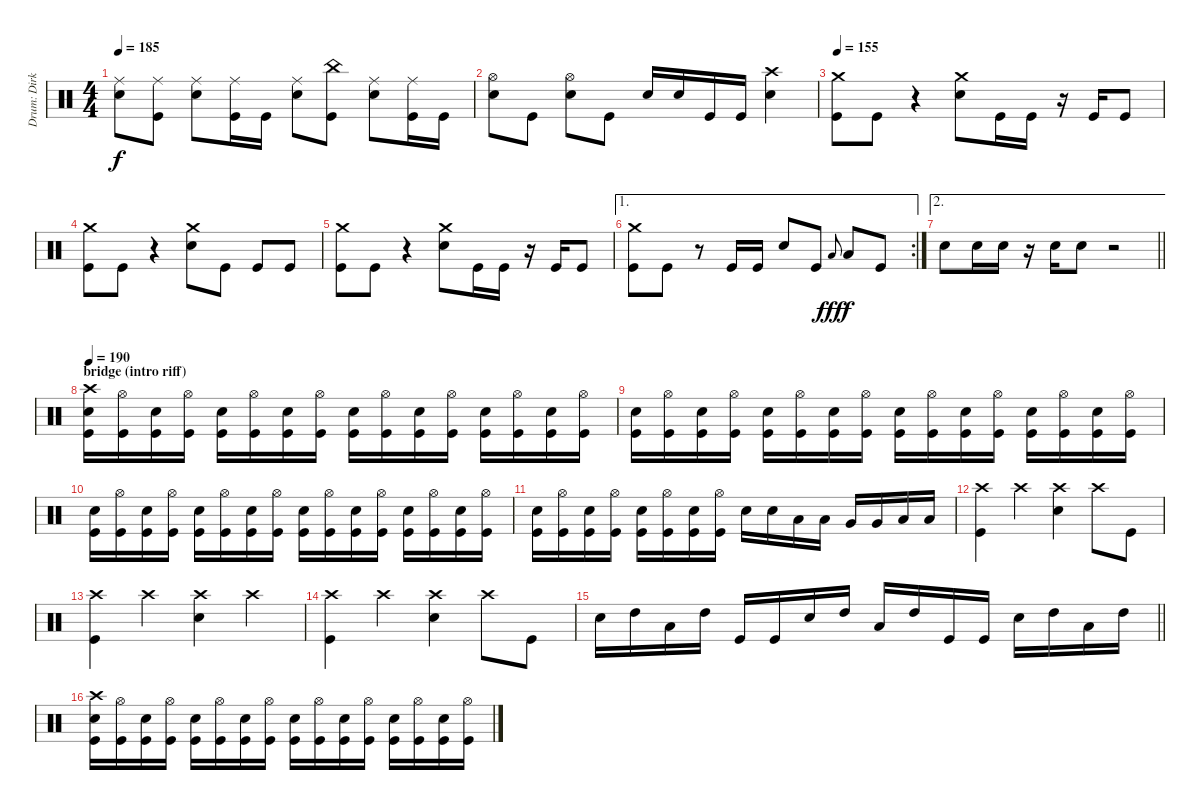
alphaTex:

\track ("Drum: Dirk" "Drum: Dirk") {instrument percussion}
\staff {score}
\articulation defaults
\ts (4 4)
\tempo 185
\clef neutral
\ks c
("Ride (middle)" "Electric Snare (hit)").8{dy f} ("Ride (middle)" "Kick (hit)").8 ("Ride (middle)" "Electric Snare (hit)").8 ("Ride (middle)" "Kick (hit)").16 "Kick (hit)".16 ("Ride (middle)" "Electric Snare (hit)").8 ("China (hit)" "Kick (hit)").8 ("Ride (middle)" "Electric Snare (hit)").8 ("Ride (middle)" "Kick (hit)").16 "Kick (hit)".16 |
("Hi-Hat (open)" "Electric Snare (hit)").8 "Kick (hit)".8 ("Hi-Hat (open)" "Electric Snare (hit)").8 "Kick (hit)".8 "Electric Snare (hit)".16 "Electric Snare (hit)".16 "Kick (hit)".16 "Kick (hit)".16 ("Crash high (hit)" "Electric Snare (hit)").4 |
\tempo 155
("Crash medium (hit)" "Kick (hit)").8 "Kick (hit)".8 r.4 ("Crash medium (hit)" "Electric Snare (hit)").8 "Kick (hit)".16 "Kick (hit)".16 r.16 "Kick (hit)".16 "Kick (hit)".8 |
("Crash medium (hit)" "Kick (hit)").8 "Kick (hit)".8 r.4 ("Crash medium (hit)" "Electric Snare (hit)").8 "Kick (hit)".8 "Kick (hit)".8 "Kick (hit)".8 |
("Crash medium (hit)" "Kick (hit)").8 "Kick (hit)".8 r.4 ("Crash medium (hit)" "Electric Snare (hit)").8 "Kick (hit)".16 "Kick (hit)".16 r.16 "Kick (hit)".16 "Kick (hit)".8 |
\ae 1
\rc 2
("Crash medium (hit)" "Kick (hit)").8 "Kick (hit)".8 r.8 "Kick (hit)".16 "Kick (hit)".16 "Electric Snare (hit)".8 "Kick (hit)".8 "Low Tom (hit)".8{gr onbeat dy fff} "Low Tom (hit)".8{dy f} "Kick (hit)".8 |
\ae 2
\barLineRight lightlight "Electric Snare (hit)".8 "Electric Snare (hit)".16 "Electric Snare (hit)".16
r.16 "Electric Snare (hit)".16 "Electric Snare (hit)".8 r.2 |
\section ("" "bridge (intro riff)")
\tempo 190
("Crash high (hit)" "Electric Snare (hit)" "Kick (hit)").16 ("Hi-Hat (open)" "Kick (hit)").16 ("Electric Snare (hit)" "Kick (hit)").16 ("Hi-Hat (open)" "Kick (hit)").16 ("Electric Snare (hit)" "Kick (hit)").16 ("Hi-Hat (open)" "Kick (hit)").16 ("Electric Snare (hit)" "Kick (hit)").16 ("Hi-Hat (open)" "Kick (hit)").16 ("Electric Snare (hit)" "Kick (hit)").16 ("Hi-Hat (open)" "Kick (hit)").16 ("Electric Snare (hit)" "Kick (hit)").16 ("Hi-Hat (open)" "Kick (hit)").16 ("Electric Snare (hit)" "Kick (hit)").16 ("Hi-Hat (open)" "Kick (hit)").16 ("Electric Snare (hit)" "Kick (hit)").16 ("Hi-Hat (open)" "Kick (hit)").16 |
("Electric Snare (hit)" "Kick (hit)").16 ("Hi-Hat (open)" "Kick (hit)").16 ("Electric Snare (hit)" "Kick (hit)").16 ("Hi-Hat (open)" "Kick (hit)").16 ("Electric Snare (hit)" "Kick (hit)").16 ("Hi-Hat (open)" "Kick (hit)").16 ("Electric Snare (hit)" "Kick (hit)").16 ("Hi-Hat (open)" "Kick (hit)").16 ("Electric Snare (hit)" "Kick (hit)").16 ("Hi-Hat (open)" "Kick (hit)").16 ("Electric Snare (hit)" "Kick (hit)").16 ("Hi-Hat (open)" "Kick (hit)").16 ("Electric Snare (hit)" "Kick (hit)").16 ("Hi-Hat (open)" "Kick (hit)").16 ("Electric Snare (hit)" "Kick (hit)").16 ("Hi-Hat (open)" "Kick (hit)").16 |
("Electric Snare (hit)" "Kick (hit)").16 ("Hi-Hat (open)" "Kick (hit)").16 ("Electric Snare (hit)" "Kick (hit)").16 ("Hi-Hat (open)" "Kick (hit)").16 ("Electric Snare (hit)" "Kick (hit)").16 ("Hi-Hat (open)" "Kick (hit)").16 ("Electric Snare (hit)" "Kick (hit)").16 ("Hi-Hat (open)" "Kick (hit)").16 ("Electric Snare (hit)" "Kick (hit)").16 ("Hi-Hat (open)" "Kick (hit)").16 ("Electric Snare (hit)" "Kick (hit)").16 ("Hi-Hat (open)" "Kick (hit)").16 ("Electric Snare (hit)" "Kick (hit)").16 ("Hi-Hat (open)" "Kick (hit)").16 ("Electric Snare (hit)" "Kick (hit)").16 ("Hi-Hat (open)" "Kick (hit)").16 |
("Electric Snare (hit)" "Kick (hit)").16 ("Hi-Hat (open)" "Kick (hit)").16 ("Electric Snare (hit)" "Kick (hit)").16 ("Hi-Hat (open)" "Kick (hit)").16 ("Electric Snare (hit)" "Kick (hit)").16 ("Hi-Hat (open)" "Kick (hit)").16 ("Electric Snare (hit)" "Kick (hit)").16 ("Hi-Hat (open)" "Kick (hit)").16 "Electric Snare (hit)".16 "Electric Snare (hit)".16 "Low Tom (hit)".16 "Low Tom (hit)".16 "Very Low Tom (hit)".16 "Very Low Tom (hit)".16 "Low Floor Tom (hit)".16 "Low Floor Tom (hit)".16 |
("Crash high (hit)" "Kick (hit)").4 "Crash high (hit)".4 ("Crash high (hit)" "Electric Snare (hit)").4 "Crash high (hit)".8 "Kick (hit)".8 |
("Crash high (hit)" "Kick (hit)").4 "Crash high (hit)".4 ("Crash high (hit)" "Electric Snare (hit)").4 "Crash high (hit)".4 |
("Crash high (hit)" "Kick (hit)").4 "Crash high (hit)".4 ("Crash high (hit)" "Electric Snare (hit)").4 "Crash high (hit)".8 "Kick (hit)".8 |
\barLineRight lightlight "Electric Snare (hit)".16 "High Tom (hit)".16 "Low Tom (hit)".16 "High Tom (hit)".16 "Kick (hit)".16 "Kick (hit)".16 "Electric Snare (hit)".16 "High Tom (hit)".16 "Low Tom (hit)".16 "High Tom (hit)".16 "Kick (hit)".16 "Kick (hit)".16 "Electric Snare (hit)".16 "High Tom (hit)".16 "Low Tom (hit)".16 "High Tom (hit)".16
|
\section ("" "")
("Crash high (hit)" "Electric Snare (hit)" "Kick (hit)").16 ("Hi-Hat (open)" "Kick (hit)").16 ("Electric Snare (hit)" "Kick (hit)").16 ("Hi-Hat (open)" "Kick (hit)").16 ("Electric Snare (hit)" "Kick (hit)").16 ("Hi-Hat (open)" "Kick (hit)").16 ("Electric Snare (hit)" "Kick (hit)").16 ("Hi-Hat (open)" "Kick (hit)").16 ("Electric Snare (hit)" "Kick (hit)").16 ("Hi-Hat (open)" "Kick (hit)").16 ("Electric Snare (hit)" "Kick (hit)").16 ("Hi-Hat (open)" "Kick (hit)").16 ("Electric Snare (hit)" "Kick (hit)").16 ("Hi-Hat (open)" "Kick (hit)").16 ("Electric Snare (hit)" "Kick (hit)").16 ("Hi-Hat (open)" "Kick (hit)").16
